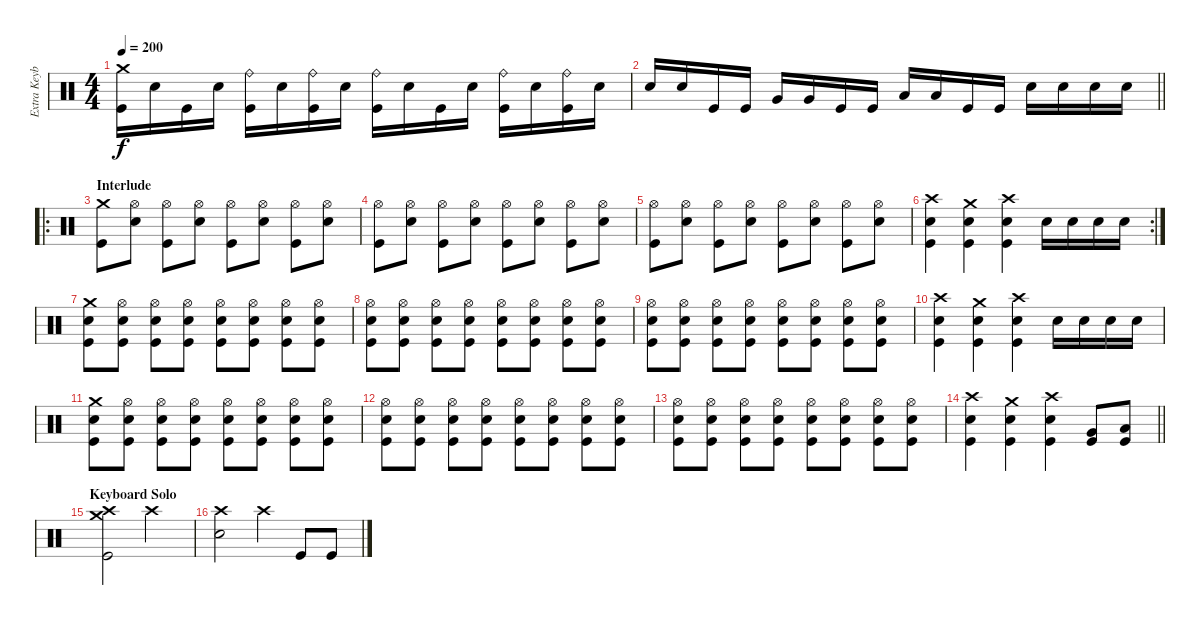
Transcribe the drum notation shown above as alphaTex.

\track ("Extra Keyboard" "Extra Keyb") {instrument percussion}
\staff {score}
\articulation defaults
\ts (4 4)
\tempo 200
\clef neutral
\ks c
("Crash medium (hit)" "Kick (hit)").16{dy f} "Electric Snare (hit)".16 "Kick (hit)".16 "Electric Snare (hit)".16 ("Ride (bell)" "Kick (hit)").16 "Electric Snare (hit)".16 ("Ride (bell)" "Kick (hit)").16 "Electric Snare (hit)".16 ("Ride (bell)" "Kick (hit)").16 "Electric Snare (hit)".16 "Kick (hit)".16 "Electric Snare (hit)".16 ("Ride (bell)" "Kick (hit)").16 "Electric Snare (hit)".16 ("Ride (bell)" "Kick (hit)").16 "Electric Snare (hit)".16 |
\barLineRight lightlight "Electric Snare (hit)".16 "Electric Snare (hit)".16 "Kick (hit)".16 "Kick (hit)".16 "Very Low Tom (hit)".16 "Very Low Tom (hit)".16 "Kick (hit)".16 "Kick (hit)".16 "Low Floor Tom (hit)".16 "Low Floor Tom (hit)".16 "Kick (hit)".16 "Kick (hit)".16 "Electric Snare (hit)".16 "Electric Snare (hit)".16 "Electric Snare (hit)".16 "Electric Snare (hit)".16
|
\ro
\section ("" "Interlude")
("Crash medium (hit)" "Kick (hit)").8 ("Hi-Hat (open)" "Electric Snare (hit)").8 ("Hi-Hat (open)" "Kick (hit)").8 ("Hi-Hat (open)" "Electric Snare (hit)").8 ("Hi-Hat (open)" "Kick (hit)").8 ("Hi-Hat (open)" "Electric Snare (hit)").8 ("Hi-Hat (open)" "Kick (hit)").8 ("Hi-Hat (open)" "Electric Snare (hit)").8 |
("Hi-Hat (open)" "Kick (hit)").8 ("Hi-Hat (open)" "Electric Snare (hit)").8 ("Hi-Hat (open)" "Kick (hit)").8 ("Hi-Hat (open)" "Electric Snare (hit)").8 ("Hi-Hat (open)" "Kick (hit)").8 ("Hi-Hat (open)" "Electric Snare (hit)").8 ("Hi-Hat (open)" "Kick (hit)").8 ("Hi-Hat (open)" "Electric Snare (hit)").8 |
("Hi-Hat (open)" "Kick (hit)").8 ("Hi-Hat (open)" "Electric Snare (hit)").8 ("Hi-Hat (open)" "Kick (hit)").8 ("Hi-Hat (open)" "Electric Snare (hit)").8 ("Hi-Hat (open)" "Kick (hit)").8 ("Hi-Hat (open)" "Electric Snare (hit)").8 ("Hi-Hat (open)" "Kick (hit)").8 ("Hi-Hat (open)" "Electric Snare (hit)").8 |
\rc 2
("Crash high (hit)" "Electric Snare (hit)" "Kick (hit)").4 ("Crash medium (hit)" "Electric Snare (hit)" "Kick (hit)").4 ("Crash high (hit)" "Electric Snare (hit)" "Kick (hit)").4 "Electric Snare (hit)".16 "Electric Snare (hit)".16 "Electric Snare (hit)".16 "Electric Snare (hit)".16 |
("Crash medium (hit)" "Electric Snare (hit)" "Kick (hit)").8 ("Hi-Hat (open)" "Electric Snare (hit)" "Kick (hit)").8 ("Hi-Hat (open)" "Electric Snare (hit)" "Kick (hit)").8 ("Hi-Hat (open)" "Electric Snare (hit)" "Kick (hit)").8 ("Hi-Hat (open)" "Electric Snare (hit)" "Kick (hit)").8 ("Hi-Hat (open)" "Electric Snare (hit)" "Kick (hit)").8 ("Hi-Hat (open)" "Electric Snare (hit)" "Kick (hit)").8 ("Hi-Hat (open)" "Electric Snare (hit)" "Kick (hit)").8 |
("Hi-Hat (open)" "Electric Snare (hit)" "Kick (hit)").8 ("Hi-Hat (open)" "Electric Snare (hit)" "Kick (hit)").8 ("Hi-Hat (open)" "Electric Snare (hit)" "Kick (hit)").8 ("Hi-Hat (open)" "Electric Snare (hit)" "Kick (hit)").8 ("Hi-Hat (open)" "Electric Snare (hit)" "Kick (hit)").8 ("Hi-Hat (open)" "Electric Snare (hit)" "Kick (hit)").8 ("Hi-Hat (open)" "Electric Snare (hit)" "Kick (hit)").8 ("Hi-Hat (open)" "Electric Snare (hit)" "Kick (hit)").8 |
("Hi-Hat (open)" "Electric Snare (hit)" "Kick (hit)").8 ("Hi-Hat (open)" "Electric Snare (hit)" "Kick (hit)").8 ("Hi-Hat (open)" "Electric Snare (hit)" "Kick (hit)").8 ("Hi-Hat (open)" "Electric Snare (hit)" "Kick (hit)").8 ("Hi-Hat (open)" "Electric Snare (hit)" "Kick (hit)").8 ("Hi-Hat (open)" "Electric Snare (hit)" "Kick (hit)").8 ("Hi-Hat (open)" "Electric Snare (hit)" "Kick (hit)").8 ("Hi-Hat (open)" "Electric Snare (hit)" "Kick (hit)").8 |
("Crash high (hit)" "Electric Snare (hit)" "Kick (hit)").4 ("Crash medium (hit)" "Electric Snare (hit)" "Kick (hit)").4 ("Crash high (hit)" "Electric Snare (hit)" "Kick (hit)").4 "Electric Snare (hit)".16 "Electric Snare (hit)".16 "Electric Snare (hit)".16 "Electric Snare (hit)".16 |
("Crash medium (hit)" "Electric Snare (hit)" "Kick (hit)").8 ("Hi-Hat (open)" "Electric Snare (hit)" "Kick (hit)").8 ("Hi-Hat (open)" "Electric Snare (hit)" "Kick (hit)").8 ("Hi-Hat (open)" "Electric Snare (hit)" "Kick (hit)").8 ("Hi-Hat (open)" "Electric Snare (hit)" "Kick (hit)").8 ("Hi-Hat (open)" "Electric Snare (hit)" "Kick (hit)").8 ("Hi-Hat (open)" "Electric Snare (hit)" "Kick (hit)").8 ("Hi-Hat (open)" "Electric Snare (hit)" "Kick (hit)").8 |
("Hi-Hat (open)" "Electric Snare (hit)" "Kick (hit)").8 ("Hi-Hat (open)" "Electric Snare (hit)" "Kick (hit)").8 ("Hi-Hat (open)" "Electric Snare (hit)" "Kick (hit)").8 ("Hi-Hat (open)" "Electric Snare (hit)" "Kick (hit)").8 ("Hi-Hat (open)" "Electric Snare (hit)" "Kick (hit)").8 ("Hi-Hat (open)" "Electric Snare (hit)" "Kick (hit)").8 ("Hi-Hat (open)" "Electric Snare (hit)" "Kick (hit)").8 ("Hi-Hat (open)" "Electric Snare (hit)" "Kick (hit)").8 |
("Hi-Hat (open)" "Electric Snare (hit)" "Kick (hit)").8 ("Hi-Hat (open)" "Electric Snare (hit)" "Kick (hit)").8 ("Hi-Hat (open)" "Electric Snare (hit)" "Kick (hit)").8 ("Hi-Hat (open)" "Electric Snare (hit)" "Kick (hit)").8 ("Hi-Hat (open)" "Electric Snare (hit)" "Kick (hit)").8 ("Hi-Hat (open)" "Electric Snare (hit)" "Kick (hit)").8 ("Hi-Hat (open)" "Electric Snare (hit)" "Kick (hit)").8 ("Hi-Hat (open)" "Electric Snare (hit)" "Kick (hit)").8 |
\barLineRight lightlight
("Crash high (hit)" "Electric Snare (hit)" "Kick (hit)").4 ("Crash medium (hit)" "Electric Snare (hit)" "Kick (hit)").4 ("Crash high (hit)" "Electric Snare (hit)" "Kick (hit)").4 ("Very Low Tom (hit)" "Kick (hit)").8 ("Low Floor Tom (hit)" "Kick (hit)").8 |
\section ("" "Keyboard Solo")
("Crash high (hit)" "Crash medium (hit)" "Kick (hit)").2 "Crash high (hit)".2 |
("Crash high (hit)" "Electric Snare (hit)").2 "Crash high (hit)".4 "Kick (hit)".8 "Kick (hit)".8
